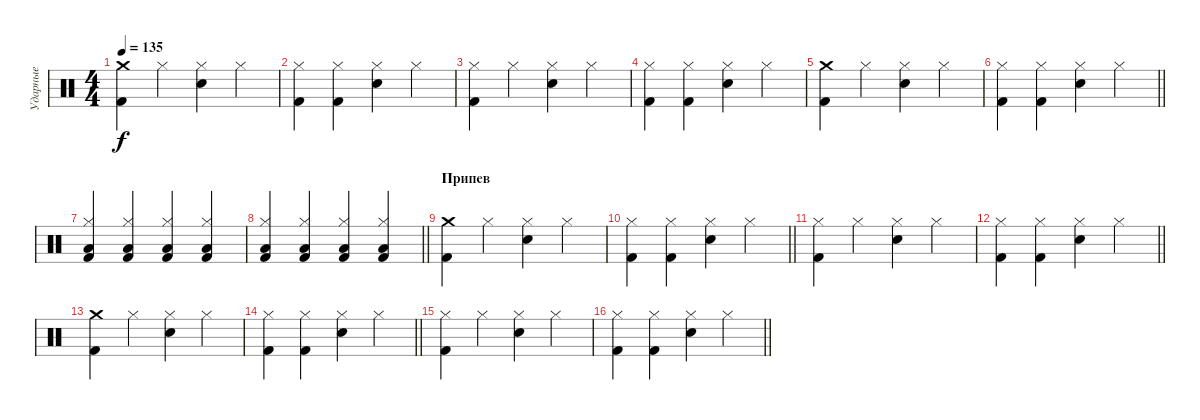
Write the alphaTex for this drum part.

\track ("Ударные" "Ударные") {instrument percussion}
\staff {score}
\articulation defaults
\ts (4 4)
\tempo 135
\clef neutral
\ks c
("Crash medium (hit)" "Kick (hit) 2").4{dy f} "Hi-Hat (closed)".4 ("Hi-Hat (closed)" "Electric Snare (hit)").4 "Hi-Hat (closed)".4 |
("Hi-Hat (closed)" "Kick (hit) 2").4 ("Hi-Hat (closed)" "Kick (hit) 2").4 ("Hi-Hat (closed)" "Electric Snare (hit)").4 "Hi-Hat (closed)".4 |
("Hi-Hat (closed)" "Kick (hit) 2").4 "Hi-Hat (closed)".4 ("Hi-Hat (closed)" "Electric Snare (hit)").4 "Hi-Hat (closed)".4 |
("Hi-Hat (closed)" "Kick (hit) 2").4 ("Hi-Hat (closed)" "Kick (hit) 2").4 ("Hi-Hat (closed)" "Electric Snare (hit)").4 "Hi-Hat (closed)".4 |
("Crash medium (hit)" "Kick (hit) 2").4 "Hi-Hat (closed)".4 ("Hi-Hat (closed)" "Electric Snare (hit)").4 "Hi-Hat (closed)".4 |
\barLineRight lightlight
("Hi-Hat (closed)" "Kick (hit) 2").4 ("Hi-Hat (closed)" "Kick (hit) 2").4 ("Hi-Hat (closed)" "Electric Snare (hit)").4 "Hi-Hat (closed)".4 |
("Hi-Hat (closed)" "Low Tom (hit)" "Kick (hit) 2").4 ("Hi-Hat (closed)" "Low Tom (hit)" "Kick (hit) 2").4 ("Hi-Hat (closed)" "Low Tom (hit)" "Kick (hit) 2").4 ("Hi-Hat (closed)" "Low Tom (hit)" "Kick (hit) 2").4 |
\barLineRight lightlight
("Hi-Hat (closed)" "Low Tom (hit)" "Kick (hit) 2").4 ("Hi-Hat (closed)" "Low Tom (hit)" "Kick (hit) 2").4 ("Hi-Hat (closed)" "Low Tom (hit)" "Kick (hit) 2").4 ("Hi-Hat (closed)" "Low Tom (hit)" "Kick (hit) 2").4 |
\section ("" "Припев")
("Crash medium (hit)" "Kick (hit) 2").4 "Hi-Hat (closed)".4 ("Hi-Hat (closed)" "Electric Snare (hit)").4 "Hi-Hat (closed)".4 |
\barLineRight lightlight
("Hi-Hat (closed)" "Kick (hit) 2").4 ("Hi-Hat (closed)" "Kick (hit) 2").4 ("Hi-Hat (closed)" "Electric Snare (hit)").4 "Hi-Hat (closed)".4 |
("Hi-Hat (closed)" "Kick (hit) 2").4 "Hi-Hat (closed)".4 ("Hi-Hat (closed)" "Electric Snare (hit)").4 "Hi-Hat (closed)".4 |
\barLineRight lightlight
("Hi-Hat (closed)" "Kick (hit) 2").4 ("Hi-Hat (closed)" "Kick (hit) 2").4 ("Hi-Hat (closed)" "Electric Snare (hit)").4 "Hi-Hat (closed)".4 |
("Crash medium (hit)" "Kick (hit) 2").4 "Hi-Hat (closed)".4 ("Hi-Hat (closed)" "Electric Snare (hit)").4 "Hi-Hat (closed)".4 |
\barLineRight lightlight
("Hi-Hat (closed)" "Kick (hit) 2").4 ("Hi-Hat (closed)" "Kick (hit) 2").4 ("Hi-Hat (closed)" "Electric Snare (hit)").4 "Hi-Hat (closed)".4 |
("Hi-Hat (closed)" "Kick (hit) 2").4 "Hi-Hat (closed)".4 ("Hi-Hat (closed)" "Electric Snare (hit)").4 "Hi-Hat (closed)".4 |
\barLineRight lightlight
("Hi-Hat (closed)" "Kick (hit) 2").4 ("Hi-Hat (closed)" "Kick (hit) 2").4 ("Hi-Hat (closed)" "Electric Snare (hit)").4 "Hi-Hat (closed)".4
